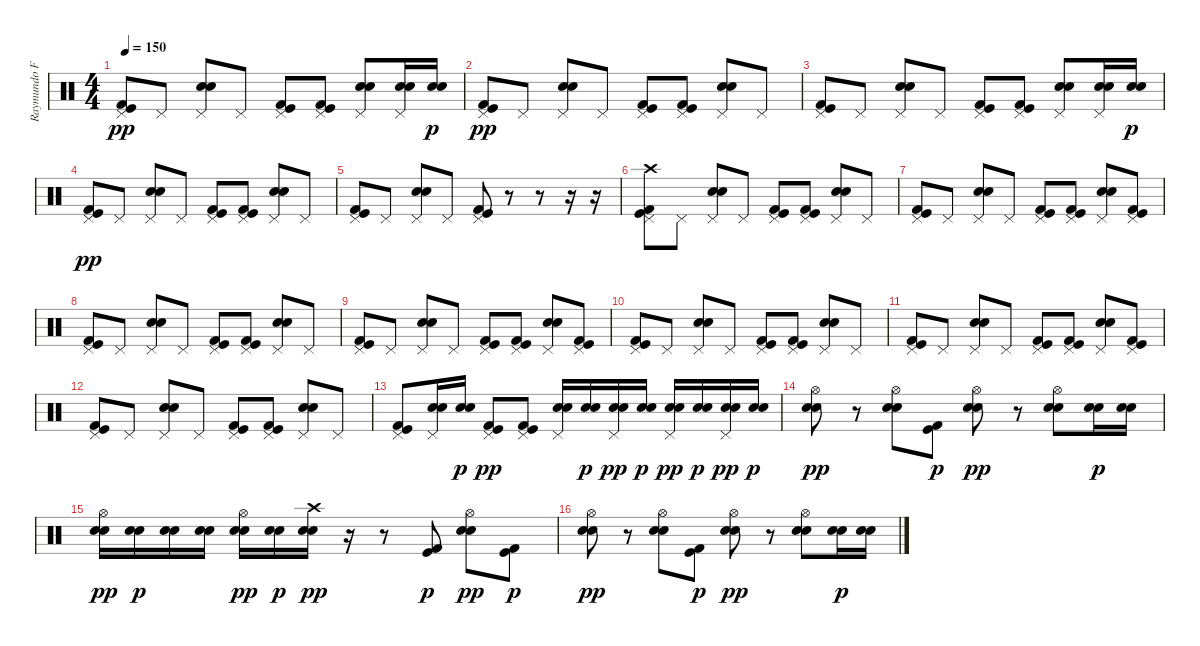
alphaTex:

\track ("Raymundo Fajardo (Bateria)" "Raymundo F") {instrument percussion}
\staff {score}
\articulation defaults
\ts (4 4)
\tempo 150
\clef neutral
\ks c
("Kick (hit) 2" "Kick (hit)" "Pedal Hi-Hat (hit)").8{dy pp} "Pedal Hi-Hat (hit)".8 ("Electric Snare (hit)" "Snare (hit) 2" "Pedal Hi-Hat (hit)").8 "Pedal Hi-Hat (hit)".8 ("Kick (hit) 2" "Kick (hit)" "Pedal Hi-Hat (hit)").8 ("Kick (hit) 2" "Kick (hit)" "Pedal Hi-Hat (hit)").8 ("Electric Snare (hit)" "Snare (hit) 2" "Pedal Hi-Hat (hit)").8 ("Electric Snare (hit)" "Snare (hit) 2" "Pedal Hi-Hat (hit)").16 ("Electric Snare (hit)" "Snare (hit) 2").16{dy p} |
("Kick (hit) 2" "Kick (hit)" "Pedal Hi-Hat (hit)").8{dy pp} "Pedal Hi-Hat (hit)".8 ("Electric Snare (hit)" "Snare (hit) 2" "Pedal Hi-Hat (hit)").8 "Pedal Hi-Hat (hit)".8 ("Kick (hit) 2" "Kick (hit)" "Pedal Hi-Hat (hit)").8 ("Kick (hit) 2" "Kick (hit)" "Pedal Hi-Hat (hit)").8 ("Electric Snare (hit)" "Snare (hit) 2" "Pedal Hi-Hat (hit)").8 "Pedal Hi-Hat (hit)".8 |
("Kick (hit) 2" "Kick (hit)" "Pedal Hi-Hat (hit)").8 "Pedal Hi-Hat (hit)".8 ("Electric Snare (hit)" "Snare (hit) 2" "Pedal Hi-Hat (hit)").8 "Pedal Hi-Hat (hit)".8 ("Kick (hit) 2" "Kick (hit)" "Pedal Hi-Hat (hit)").8 ("Kick (hit) 2" "Kick (hit)" "Pedal Hi-Hat (hit)").8 ("Electric Snare (hit)" "Snare (hit) 2" "Pedal Hi-Hat (hit)").8 ("Electric Snare (hit)" "Snare (hit) 2" "Pedal Hi-Hat (hit)").16 ("Electric Snare (hit)" "Snare (hit) 2").16{dy p} |
("Kick (hit) 2" "Kick (hit)" "Pedal Hi-Hat (hit)").8{dy pp} "Pedal Hi-Hat (hit)".8 ("Electric Snare (hit)" "Snare (hit) 2" "Pedal Hi-Hat (hit)").8 "Pedal Hi-Hat (hit)".8 ("Kick (hit) 2" "Kick (hit)" "Pedal Hi-Hat (hit)").8 ("Kick (hit) 2" "Kick (hit)" "Pedal Hi-Hat (hit)").8 ("Electric Snare (hit)" "Snare (hit) 2" "Pedal Hi-Hat (hit)").8 "Pedal Hi-Hat (hit)".8 |
("Kick (hit) 2" "Kick (hit)" "Pedal Hi-Hat (hit)").8 "Pedal Hi-Hat (hit)".8 ("Electric Snare (hit)" "Snare (hit) 2" "Pedal Hi-Hat (hit)").8 "Pedal Hi-Hat (hit)".8 ("Kick (hit) 2" "Kick (hit)" "Pedal Hi-Hat (hit)").8 r.8 r.8 r.16 r.16 |
("Kick (hit) 2" "Kick (hit)" "Crash high (hit)" "Pedal Hi-Hat (hit)").8 "Pedal Hi-Hat (hit)".8 ("Electric Snare (hit)" "Snare (hit) 2" "Pedal Hi-Hat (hit)").8 "Pedal Hi-Hat (hit)".8 ("Kick (hit) 2" "Kick (hit)" "Pedal Hi-Hat (hit)").8 ("Kick (hit) 2" "Kick (hit)" "Pedal Hi-Hat (hit)").8 ("Electric Snare (hit)" "Snare (hit) 2" "Pedal Hi-Hat (hit)").8 "Pedal Hi-Hat (hit)".8 |
("Kick (hit) 2" "Kick (hit)" "Pedal Hi-Hat (hit)").8 "Pedal Hi-Hat (hit)".8 ("Electric Snare (hit)" "Snare (hit) 2" "Pedal Hi-Hat (hit)").8 "Pedal Hi-Hat (hit)".8 ("Kick (hit) 2" "Kick (hit)" "Pedal Hi-Hat (hit)").8 ("Kick (hit) 2" "Kick (hit)" "Pedal Hi-Hat (hit)").8 ("Electric Snare (hit)" "Snare (hit) 2" "Pedal Hi-Hat (hit)").8 ("Kick (hit) 2" "Kick (hit)" "Pedal Hi-Hat (hit)").8 |
("Kick (hit) 2" "Kick (hit)" "Pedal Hi-Hat (hit)").8 "Pedal Hi-Hat (hit)".8 ("Electric Snare (hit)" "Snare (hit) 2" "Pedal Hi-Hat (hit)").8 "Pedal Hi-Hat (hit)".8 ("Kick (hit) 2" "Kick (hit)" "Pedal Hi-Hat (hit)").8 ("Kick (hit) 2" "Kick (hit)" "Pedal Hi-Hat (hit)").8 ("Electric Snare (hit)" "Snare (hit) 2" "Pedal Hi-Hat (hit)").8 "Pedal Hi-Hat (hit)".8 |
("Kick (hit) 2" "Kick (hit)" "Pedal Hi-Hat (hit)").8 "Pedal Hi-Hat (hit)".8 ("Electric Snare (hit)" "Snare (hit) 2" "Pedal Hi-Hat (hit)").8 "Pedal Hi-Hat (hit)".8 ("Kick (hit) 2" "Kick (hit)" "Pedal Hi-Hat (hit)").8 ("Kick (hit) 2" "Kick (hit)" "Pedal Hi-Hat (hit)").8 ("Electric Snare (hit)" "Snare (hit) 2" "Pedal Hi-Hat (hit)").8 ("Kick (hit) 2" "Kick (hit)" "Pedal Hi-Hat (hit)").8 |
("Kick (hit) 2" "Kick (hit)" "Pedal Hi-Hat (hit)").8 "Pedal Hi-Hat (hit)".8 ("Electric Snare (hit)" "Snare (hit) 2" "Pedal Hi-Hat (hit)").8 "Pedal Hi-Hat (hit)".8 ("Kick (hit) 2" "Kick (hit)" "Pedal Hi-Hat (hit)").8 ("Kick (hit) 2" "Kick (hit)" "Pedal Hi-Hat (hit)").8 ("Electric Snare (hit)" "Snare (hit) 2" "Pedal Hi-Hat (hit)").8 "Pedal Hi-Hat (hit)".8 |
("Kick (hit) 2" "Kick (hit)" "Pedal Hi-Hat (hit)").8 "Pedal Hi-Hat (hit)".8 ("Electric Snare (hit)" "Snare (hit) 2" "Pedal Hi-Hat (hit)").8 "Pedal Hi-Hat (hit)".8 ("Kick (hit) 2" "Kick (hit)" "Pedal Hi-Hat (hit)").8 ("Kick (hit) 2" "Kick (hit)" "Pedal Hi-Hat (hit)").8 ("Electric Snare (hit)" "Snare (hit) 2" "Pedal Hi-Hat (hit)").8 ("Kick (hit) 2" "Kick (hit)" "Pedal Hi-Hat (hit)").8 |
("Kick (hit) 2" "Kick (hit)" "Pedal Hi-Hat (hit)").8 "Pedal Hi-Hat (hit)".8 ("Electric Snare (hit)" "Snare (hit) 2" "Pedal Hi-Hat (hit)").8 "Pedal Hi-Hat (hit)".8 ("Kick (hit) 2" "Kick (hit)" "Pedal Hi-Hat (hit)").8 ("Kick (hit) 2" "Kick (hit)" "Pedal Hi-Hat (hit)").8 ("Electric Snare (hit)" "Snare (hit) 2" "Pedal Hi-Hat (hit)").8 "Pedal Hi-Hat (hit)".8 |
("Kick (hit)" "Kick (hit) 2" "Pedal Hi-Hat (hit)").8 ("Snare (hit) 2" "Electric Snare (hit)" "Pedal Hi-Hat (hit)").16 ("Snare (hit) 2" "Electric Snare (hit)").16{dy p} ("Kick (hit)" "Kick (hit) 2" "Pedal Hi-Hat (hit)").8{dy pp} ("Kick (hit)" "Kick (hit) 2" "Pedal Hi-Hat (hit)").8 ("Snare (hit) 2" "Electric Snare (hit)" "Pedal Hi-Hat (hit)").16 ("Snare (hit) 2" "Electric Snare (hit)").16{dy p} ("Snare (hit) 2" "Electric Snare (hit)" "Pedal Hi-Hat (hit)").16{dy pp} ("Snare (hit) 2" "Electric Snare (hit)").16{dy p} ("Snare (hit) 2" "Electric Snare (hit)" "Pedal Hi-Hat (hit)").16{dy pp} ("Snare (hit) 2" "Electric Snare (hit)").16{dy p} ("Snare (hit) 2" "Electric Snare (hit)" "Pedal Hi-Hat (hit)").16{dy pp} ("Snare (hit) 2" "Electric Snare (hit)").16{dy p} |
("Electric Snare (hit)" "Snare (hit) 2" "Hi-Hat (open)").8{dy pp} r.8 ("Electric Snare (hit)" "Snare (hit) 2" "Hi-Hat (open)").8 ("Kick (hit) 2" "Kick (hit)").8{dy p} ("Electric Snare (hit)" "Snare (hit) 2" "Hi-Hat (open)").8{dy pp} r.8 ("Electric Snare (hit)" "Snare (hit) 2" "Hi-Hat (open)").8 ("Electric Snare (hit)" "Snare (hit) 2").16{dy p} ("Electric Snare (hit)" "Snare (hit) 2").16 |
("Electric Snare (hit)" "Snare (hit) 2" "Hi-Hat (open)").16{dy pp} ("Electric Snare (hit)" "Snare (hit) 2").16{dy p} ("Electric Snare (hit)" "Snare (hit) 2").16 ("Electric Snare (hit)" "Snare (hit) 2").16 ("Electric Snare (hit)" "Snare (hit) 2" "Hi-Hat (open)").16{dy pp} ("Electric Snare (hit)" "Snare (hit) 2").16{dy p} ("Electric Snare (hit)" "Snare (hit) 2" "Crash high (hit)").16{dy pp} r.16 r.8 ("Kick (hit) 2" "Kick (hit)").8{dy p} ("Electric Snare (hit)" "Snare (hit) 2" "Hi-Hat (open)").8{dy pp} ("Kick (hit) 2" "Kick (hit)").8{dy p} |
("Electric Snare (hit)" "Snare (hit) 2" "Hi-Hat (open)").8{dy pp} r.8 ("Electric Snare (hit)" "Snare (hit) 2" "Hi-Hat (open)").8 ("Kick (hit) 2" "Kick (hit)").8{dy p} ("Electric Snare (hit)" "Snare (hit) 2" "Hi-Hat (open)").8{dy pp} r.8 ("Electric Snare (hit)" "Snare (hit) 2" "Hi-Hat (open)").8 ("Electric Snare (hit)" "Snare (hit) 2").16{dy p} ("Electric Snare (hit)" "Snare (hit) 2").16
